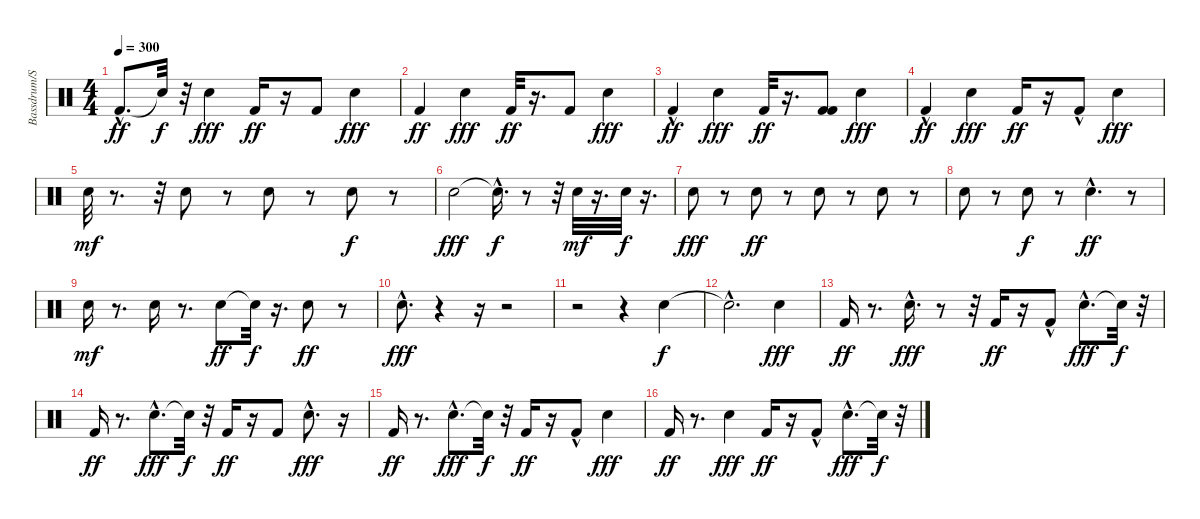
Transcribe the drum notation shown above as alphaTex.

\track ("Bassdrum/Snare" "Bassdrum/S") {instrument percussion}
\staff {score}
\articulation defaults
\ts (4 4)
\tempo 300
\clef neutral
\ks c "Kick (hit) 2"{hac}.8{d dy ff} "Snare (hit)"{t}.32{dy f}
r.32 "Snare (hit) 2".4{dy fff} "Kick (hit) 2".16{dy ff} r.16 "Kick (hit) 2".8 "Snare (hit) 2".4{dy fff} |
"Kick (hit) 2".4{dy ff} "Snare (hit) 2".4{dy fff} "Kick (hit) 2".32{dy ff} r.16{d} "Kick (hit) 2".8 "Snare (hit) 2".4{dy fff} |
"Kick (hit) 2"{hac}.4{dy ff} "Snare (hit) 2".4{dy fff} "Kick (hit) 2".32{dy ff} r.16{d} ("Kick (hit) 2" "Kick (hit) 2").8 "Snare (hit) 2".4{dy fff} |
"Kick (hit) 2"{hac}.4{dy ff} "Snare (hit) 2".4{dy fff} "Kick (hit) 2".16{dy ff} r.16 "Kick (hit) 2"{hac}.8 "Snare (hit) 2".4{dy fff} |
"Snare (hit) 2".32{dy mf} r.8{d} r.32 "Snare (hit) 2".8 r.8 "Snare (hit) 2".8 r.8 "Snare (hit) 2".8{dy f} r.8 |
"Snare (hit) 2".2{dy fff} "Snare (hit)"{hac t}.16{d dy f} r.8 r.32 "Snare (hit) 2".32{dy mf} r.16{d} "Snare (hit) 2".32{dy f} r.16{d} |
"Snare (hit) 2".8{dy fff} r.8 "Snare (hit) 2".8{dy ff} r.8 "Snare (hit) 2".8 r.8 "Snare (hit) 2".8 r.8 |
"Snare (hit) 2".8 r.8 "Snare (hit) 2".8{dy f} r.8 "Snare (hit) 2"{hac}.4{d dy ff} r.8 |
"Snare (hit) 2".16{dy mf} r.8{d} "Snare (hit) 2".16 r.8{d} "Snare (hit) 2".8{dy ff} "Snare (hit)"{t}.32{dy f} r.16{d} "Snare (hit) 2".8{dy ff} r.8 |
"Snare (hit) 2"{hac}.8{d dy fff} r.4 r.16 r.2 |
r.2 r.4 "Snare (hit) 2".4{dy f} |
"Snare (hit)"{hac t}.2{d} "Snare (hit) 2".4{dy fff} |
"Kick (hit) 2".16{dy ff} r.8{d} "Snare (hit) 2"{hac}.16{d dy fff} r.8 r.32 "Kick (hit) 2".16{dy ff} r.16 "Kick (hit) 2"{hac}.8 "Snare (hit) 2"{hac}.8{d dy fff} "Snare (hit)"{t}.32{dy f} r.32 |
"Kick (hit) 2".16{dy ff} r.8{d} "Snare (hit) 2"{hac}.8{d dy fff} "Snare (hit)"{t}.32{dy f} r.32 "Kick (hit) 2".16{dy ff} r.16 "Kick (hit) 2".8 "Snare (hit) 2"{hac}.8{d dy fff} r.16 |
"Kick (hit) 2".16{dy ff} r.8{d} "Snare (hit) 2"{hac}.8{d dy fff} "Snare (hit)"{t}.32{dy f} r.32 "Kick (hit) 2".16{dy ff} r.16 "Kick (hit) 2"{hac}.8 "Snare (hit) 2".4{dy fff} |
"Kick (hit) 2".16{dy ff} r.8{d} "Snare (hit) 2".4{dy fff} "Kick (hit) 2".16{dy ff} r.16 "Kick (hit) 2"{hac}.8 "Snare (hit) 2"{hac}.8{d dy fff} "Snare (hit)"{t}.32{dy f} r.32
